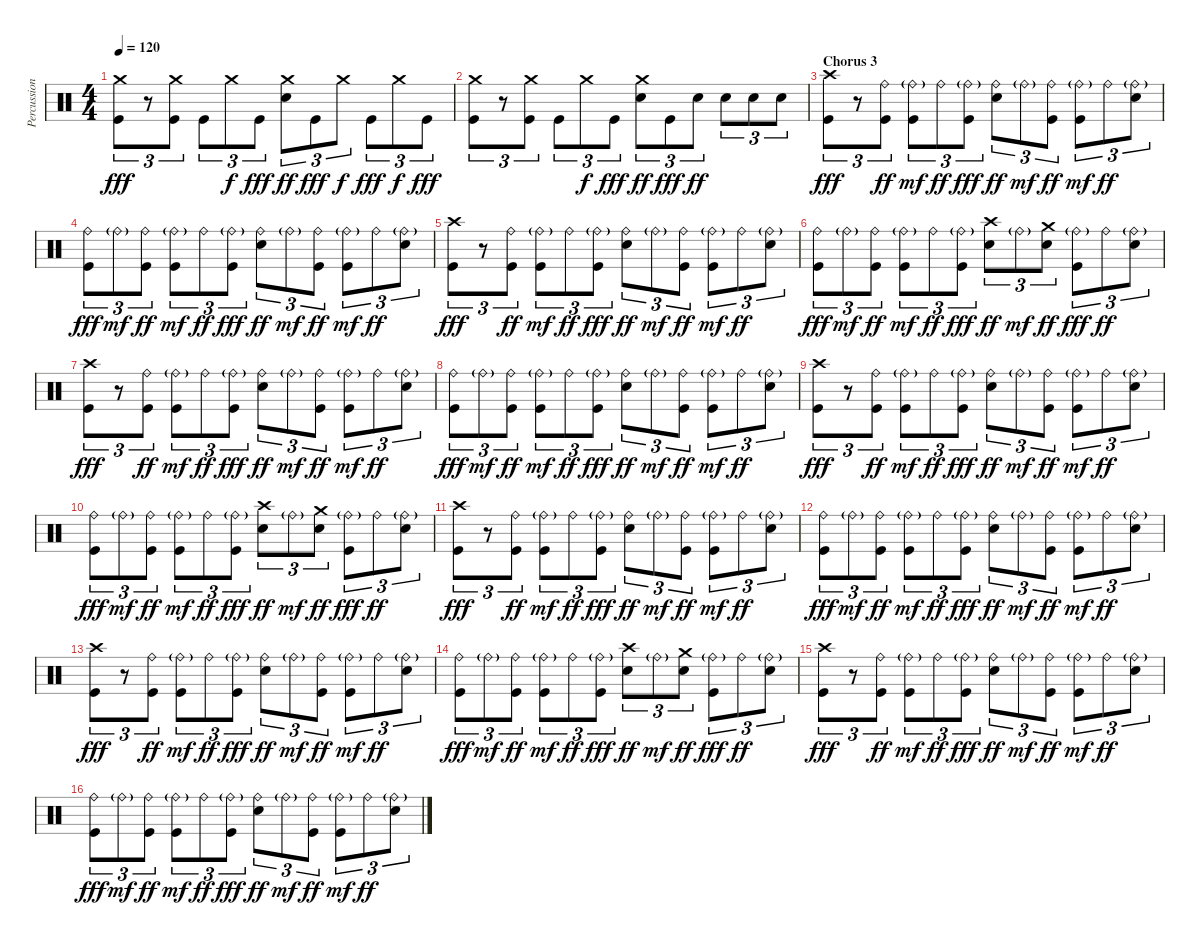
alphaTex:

\track ("Percussion" "Percussion") {instrument percussion}
\staff {score}
\articulation defaults
\ts (4 4)
\tempo 120
\clef neutral
\ks c
("Crash medium (hit)" "Kick (hit)").8{tu (3 2) dy fff} r.8{tu (3 2)} ("Crash medium (hit)" "Kick (hit)").8{tu (3 2)} "Kick (hit)".8{tu (3 2)} "Crash medium (hit)".8{tu (3 2) dy f} "Kick (hit)".8{tu (3 2) dy fff} ("Crash medium (hit)" "Snare (hit) 2").8{tu (3 2) dy ff} "Kick (hit)".8{tu (3 2) dy fff} "Crash medium (hit)".8{tu (3 2) dy f} "Kick (hit)".8{tu (3 2) dy fff} "Crash medium (hit)".8{tu (3 2) dy f} "Kick (hit)".8{tu (3 2) dy fff} |
("Crash medium (hit)" "Kick (hit)").8{tu (3 2)} r.8{tu (3 2)} ("Crash medium (hit)" "Kick (hit)").8{tu (3 2)} "Kick (hit)".8{tu (3 2)} "Crash medium (hit)".8{tu (3 2) dy f} "Kick (hit)".8{tu (3 2) dy fff} ("Crash medium (hit)" "Snare (hit) 2").8{tu (3 2) dy ff} "Kick (hit)".8{tu (3 2) dy fff} "Snare (hit) 2".8{tu (3 2) dy ff} "Snare (hit) 2".8{tu (3 2)} "Snare (hit) 2".8{tu (3 2)} "Snare (hit) 2".8{tu (3 2)} |
\section ("" "Chorus 3")
("Crash high (hit)" "Kick (hit)").8{tu (3 2) dy fff} r.8{tu (3 2)} ("Ride (bell)" "Kick (hit)").8{tu (3 2) dy ff} ("Ride (bell)"{g} "Kick (hit)").8{tu (3 2) dy mf} "Ride (bell)".8{tu (3 2) dy ff} ("Ride (bell)"{g} "Kick (hit)").8{tu (3 2) dy fff} ("Ride (bell)" "Snare (hit) 2").8{tu (3 2) dy ff} "Ride (bell)"{g}.8{tu (3 2) dy mf} ("Ride (bell)" "Kick (hit)").8{tu (3 2) dy ff} ("Ride (bell)"{g} "Kick (hit)").8{tu (3 2) dy mf} "Ride (bell)".8{tu (3 2) dy ff} ("Ride (bell)"{g} "Snare (hit) 2").8{tu (3 2)} |
("Ride (bell)" "Kick (hit)").8{tu (3 2) dy fff} "Ride (bell)"{g}.8{tu (3 2) dy mf} ("Ride (bell)" "Kick (hit)").8{tu (3 2) dy ff} ("Ride (bell)"{g} "Kick (hit)").8{tu (3 2) dy mf} "Ride (bell)".8{tu (3 2) dy ff} ("Ride (bell)"{g} "Kick (hit)").8{tu (3 2) dy fff} ("Ride (bell)" "Snare (hit) 2").8{tu (3 2) dy ff} "Ride (bell)"{g}.8{tu (3 2) dy mf} ("Ride (bell)" "Kick (hit)").8{tu (3 2) dy ff} ("Ride (bell)"{g} "Kick (hit)").8{tu (3 2) dy mf} "Ride (bell)".8{tu (3 2) dy ff} ("Ride (bell)"{g} "Snare (hit) 2").8{tu (3 2)} |
("Crash high (hit)" "Kick (hit)").8{tu (3 2) dy fff} r.8{tu (3 2)} ("Ride (bell)" "Kick (hit)").8{tu (3 2) dy ff} ("Ride (bell)"{g} "Kick (hit)").8{tu (3 2) dy mf} "Ride (bell)".8{tu (3 2) dy ff} ("Ride (bell)"{g} "Kick (hit)").8{tu (3 2) dy fff} ("Ride (bell)" "Snare (hit) 2").8{tu (3 2) dy ff} "Ride (bell)"{g}.8{tu (3 2) dy mf} ("Ride (bell)" "Kick (hit)").8{tu (3 2) dy ff} ("Ride (bell)"{g} "Kick (hit)").8{tu (3 2) dy mf} "Ride (bell)".8{tu (3 2) dy ff} ("Ride (bell)"{g} "Snare (hit) 2").8{tu (3 2)} |
("Ride (bell)" "Kick (hit)").8{tu (3 2) dy fff} "Ride (bell)"{g}.8{tu (3 2) dy mf} ("Ride (bell)" "Kick (hit)").8{tu (3 2) dy ff} ("Ride (bell)"{g} "Kick (hit)").8{tu (3 2) dy mf} "Ride (bell)".8{tu (3 2) dy ff} ("Ride (bell)"{g} "Kick (hit)").8{tu (3 2) dy fff} ("Crash high (hit)" "Snare (hit) 2").8{tu (3 2) dy ff} "Ride (bell)"{g}.8{tu (3 2) dy mf} ("Crash medium (hit)" "Snare (hit) 2").8{tu (3 2) dy ff} ("Ride (bell)"{g} "Kick (hit)").8{tu (3 2) dy fff} "Ride (bell)".8{tu (3 2) dy ff} ("Ride (bell)"{g} "Snare (hit) 2").8{tu (3 2)} |
("Crash high (hit)" "Kick (hit)").8{tu (3 2) dy fff} r.8{tu (3 2)} ("Ride (bell)" "Kick (hit)").8{tu (3 2) dy ff} ("Ride (bell)"{g} "Kick (hit)").8{tu (3 2) dy mf} "Ride (bell)".8{tu (3 2) dy ff} ("Ride (bell)"{g} "Kick (hit)").8{tu (3 2) dy fff} ("Ride (bell)" "Snare (hit) 2").8{tu (3 2) dy ff} "Ride (bell)"{g}.8{tu (3 2) dy mf} ("Ride (bell)" "Kick (hit)").8{tu (3 2) dy ff} ("Ride (bell)"{g} "Kick (hit)").8{tu (3 2) dy mf} "Ride (bell)".8{tu (3 2) dy ff} ("Ride (bell)"{g} "Snare (hit) 2").8{tu (3 2)} |
("Ride (bell)" "Kick (hit)").8{tu (3 2) dy fff} "Ride (bell)"{g}.8{tu (3 2) dy mf} ("Ride (bell)" "Kick (hit)").8{tu (3 2) dy ff} ("Ride (bell)"{g} "Kick (hit)").8{tu (3 2) dy mf} "Ride (bell)".8{tu (3 2) dy ff} ("Ride (bell)"{g} "Kick (hit)").8{tu (3 2) dy fff} ("Ride (bell)" "Snare (hit) 2").8{tu (3 2) dy ff} "Ride (bell)"{g}.8{tu (3 2) dy mf} ("Ride (bell)" "Kick (hit)").8{tu (3 2) dy ff} ("Ride (bell)"{g} "Kick (hit)").8{tu (3 2) dy mf} "Ride (bell)".8{tu (3 2) dy ff} ("Ride (bell)"{g} "Snare (hit) 2").8{tu (3 2)} |
("Crash high (hit)" "Kick (hit)").8{tu (3 2) dy fff} r.8{tu (3 2)} ("Ride (bell)" "Kick (hit)").8{tu (3 2) dy ff} ("Ride (bell)"{g} "Kick (hit)").8{tu (3 2) dy mf} "Ride (bell)".8{tu (3 2) dy ff} ("Ride (bell)"{g} "Kick (hit)").8{tu (3 2) dy fff} ("Ride (bell)" "Snare (hit) 2").8{tu (3 2) dy ff} "Ride (bell)"{g}.8{tu (3 2) dy mf} ("Ride (bell)" "Kick (hit)").8{tu (3 2) dy ff} ("Ride (bell)"{g} "Kick (hit)").8{tu (3 2) dy mf} "Ride (bell)".8{tu (3 2) dy ff} ("Ride (bell)"{g} "Snare (hit) 2").8{tu (3 2)} |
("Ride (bell)" "Kick (hit)").8{tu (3 2) dy fff} "Ride (bell)"{g}.8{tu (3 2) dy mf} ("Ride (bell)" "Kick (hit)").8{tu (3 2) dy ff} ("Ride (bell)"{g} "Kick (hit)").8{tu (3 2) dy mf} "Ride (bell)".8{tu (3 2) dy ff} ("Ride (bell)"{g} "Kick (hit)").8{tu (3 2) dy fff} ("Crash high (hit)" "Snare (hit) 2").8{tu (3 2) dy ff} "Ride (bell)"{g}.8{tu (3 2) dy mf} ("Crash medium (hit)" "Snare (hit) 2").8{tu (3 2) dy ff} ("Ride (bell)"{g} "Kick (hit)").8{tu (3 2) dy fff} "Ride (bell)".8{tu (3 2) dy ff} ("Ride (bell)"{g} "Snare (hit) 2").8{tu (3 2)} |
("Crash high (hit)" "Kick (hit)").8{tu (3 2) dy fff} r.8{tu (3 2)} ("Ride (bell)" "Kick (hit)").8{tu (3 2) dy ff} ("Ride (bell)"{g} "Kick (hit)").8{tu (3 2) dy mf} "Ride (bell)".8{tu (3 2) dy ff} ("Ride (bell)"{g} "Kick (hit)").8{tu (3 2) dy fff} ("Ride (bell)" "Snare (hit) 2").8{tu (3 2) dy ff} "Ride (bell)"{g}.8{tu (3 2) dy mf} ("Ride (bell)" "Kick (hit)").8{tu (3 2) dy ff} ("Ride (bell)"{g} "Kick (hit)").8{tu (3 2) dy mf} "Ride (bell)".8{tu (3 2) dy ff} ("Ride (bell)"{g} "Snare (hit) 2").8{tu (3 2)} |
("Ride (bell)" "Kick (hit)").8{tu (3 2) dy fff} "Ride (bell)"{g}.8{tu (3 2) dy mf} ("Ride (bell)" "Kick (hit)").8{tu (3 2) dy ff} ("Ride (bell)"{g} "Kick (hit)").8{tu (3 2) dy mf} "Ride (bell)".8{tu (3 2) dy ff} ("Ride (bell)"{g} "Kick (hit)").8{tu (3 2) dy fff} ("Ride (bell)" "Snare (hit) 2").8{tu (3 2) dy ff} "Ride (bell)"{g}.8{tu (3 2) dy mf} ("Ride (bell)" "Kick (hit)").8{tu (3 2) dy ff} ("Ride (bell)"{g} "Kick (hit)").8{tu (3 2) dy mf} "Ride (bell)".8{tu (3 2) dy ff} ("Ride (bell)"{g} "Snare (hit) 2").8{tu (3 2)} |
("Crash high (hit)" "Kick (hit)").8{tu (3 2) dy fff} r.8{tu (3 2)} ("Ride (bell)" "Kick (hit)").8{tu (3 2) dy ff} ("Ride (bell)"{g} "Kick (hit)").8{tu (3 2) dy mf} "Ride (bell)".8{tu (3 2) dy ff} ("Ride (bell)"{g} "Kick (hit)").8{tu (3 2) dy fff} ("Ride (bell)" "Snare (hit) 2").8{tu (3 2) dy ff} "Ride (bell)"{g}.8{tu (3 2) dy mf} ("Ride (bell)" "Kick (hit)").8{tu (3 2) dy ff} ("Ride (bell)"{g} "Kick (hit)").8{tu (3 2) dy mf} "Ride (bell)".8{tu (3 2) dy ff} ("Ride (bell)"{g} "Snare (hit) 2").8{tu (3 2)} |
("Ride (bell)" "Kick (hit)").8{tu (3 2) dy fff} "Ride (bell)"{g}.8{tu (3 2) dy mf} ("Ride (bell)" "Kick (hit)").8{tu (3 2) dy ff} ("Ride (bell)"{g} "Kick (hit)").8{tu (3 2) dy mf} "Ride (bell)".8{tu (3 2) dy ff} ("Ride (bell)"{g} "Kick (hit)").8{tu (3 2) dy fff} ("Crash high (hit)" "Snare (hit) 2").8{tu (3 2) dy ff} "Ride (bell)"{g}.8{tu (3 2) dy mf} ("Crash medium (hit)" "Snare (hit) 2").8{tu (3 2) dy ff} ("Ride (bell)"{g} "Kick (hit)").8{tu (3 2) dy fff} "Ride (bell)".8{tu (3 2) dy ff} ("Ride (bell)"{g} "Snare (hit) 2").8{tu (3 2)} |
("Crash high (hit)" "Kick (hit)").8{tu (3 2) dy fff} r.8{tu (3 2)} ("Ride (bell)" "Kick (hit)").8{tu (3 2) dy ff} ("Ride (bell)"{g} "Kick (hit)").8{tu (3 2) dy mf} "Ride (bell)".8{tu (3 2) dy ff} ("Ride (bell)"{g} "Kick (hit)").8{tu (3 2) dy fff} ("Ride (bell)" "Snare (hit) 2").8{tu (3 2) dy ff} "Ride (bell)"{g}.8{tu (3 2) dy mf} ("Ride (bell)" "Kick (hit)").8{tu (3 2) dy ff} ("Ride (bell)"{g} "Kick (hit)").8{tu (3 2) dy mf} "Ride (bell)".8{tu (3 2) dy ff} ("Ride (bell)"{g} "Snare (hit) 2").8{tu (3 2)} |
("Ride (bell)" "Kick (hit)").8{tu (3 2) dy fff} "Ride (bell)"{g}.8{tu (3 2) dy mf} ("Ride (bell)" "Kick (hit)").8{tu (3 2) dy ff} ("Ride (bell)"{g} "Kick (hit)").8{tu (3 2) dy mf} "Ride (bell)".8{tu (3 2) dy ff} ("Ride (bell)"{g} "Kick (hit)").8{tu (3 2) dy fff} ("Ride (bell)" "Snare (hit) 2").8{tu (3 2) dy ff} "Ride (bell)"{g}.8{tu (3 2) dy mf} ("Ride (bell)" "Kick (hit)").8{tu (3 2) dy ff} ("Ride (bell)"{g} "Kick (hit)").8{tu (3 2) dy mf} "Ride (bell)".8{tu (3 2) dy ff} ("Ride (bell)"{g} "Snare (hit) 2").8{tu (3 2)}
